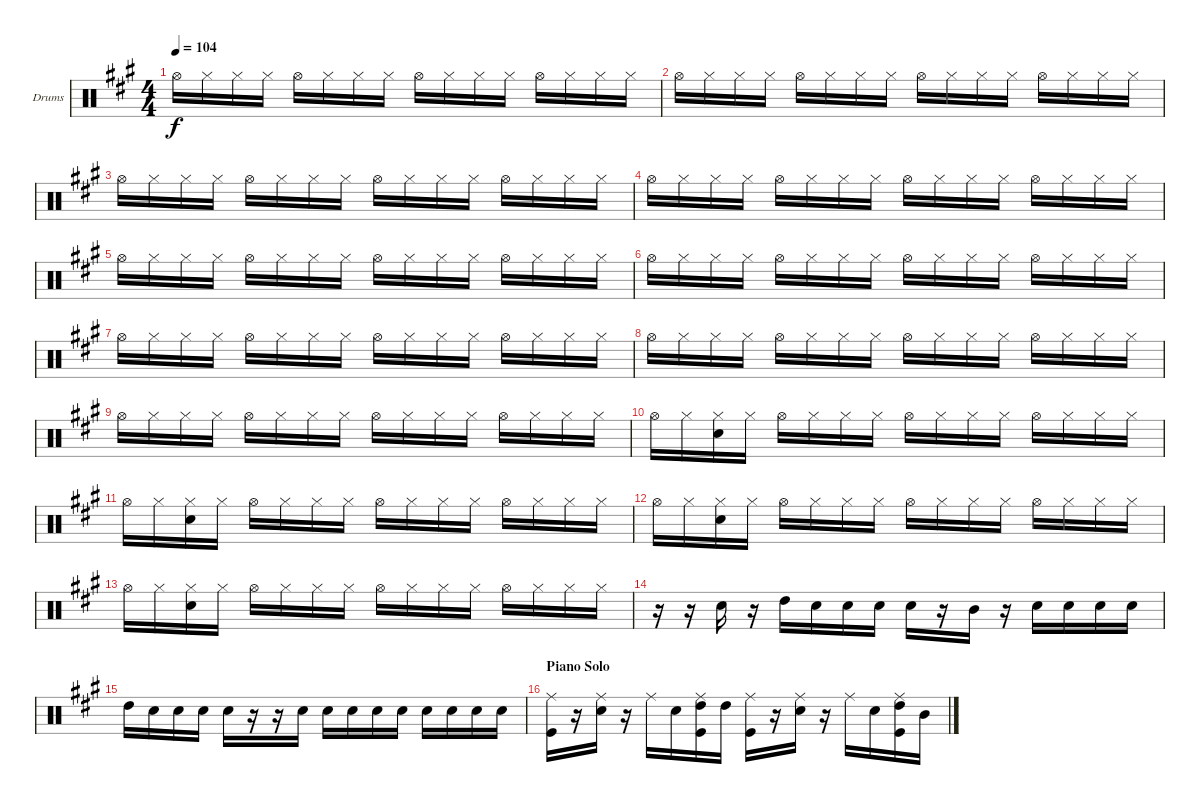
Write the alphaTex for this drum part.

\bracketExtendMode groupsimilarinstruments
\firstSystemTrackNameOrientation horizontal
\otherSystemsTrackNameOrientation horizontal
\track ("Drumkit" "Drums") {instrument percussion}
\staff {score}
\articulation defaults
\ts (4 4)
\tempo 104
\clef neutral
\ks a "Hi-Hat (open)".16{dy f} "Hi-Hat (closed)".16 "Hi-Hat (closed)".16 "Hi-Hat (closed)".16 "Hi-Hat (open)".16 "Hi-Hat (closed)".16 "Hi-Hat (closed)".16 "Hi-Hat (closed)".16 "Hi-Hat (open)".16 "Hi-Hat (closed)".16 "Hi-Hat (closed)".16 "Hi-Hat (closed)".16 "Hi-Hat (open)".16 "Hi-Hat (closed)".16 "Hi-Hat (closed)".16 "Hi-Hat (closed)".16
|
"Hi-Hat (open)".16 "Hi-Hat (closed)".16 "Hi-Hat (closed)".16 "Hi-Hat (closed)".16 "Hi-Hat (open)".16 "Hi-Hat (closed)".16 "Hi-Hat (closed)".16 "Hi-Hat (closed)".16 "Hi-Hat (open)".16 "Hi-Hat (closed)".16 "Hi-Hat (closed)".16 "Hi-Hat (closed)".16 "Hi-Hat (open)".16 "Hi-Hat (closed)".16 "Hi-Hat (closed)".16 "Hi-Hat (closed)".16 |
"Hi-Hat (open)".16 "Hi-Hat (closed)".16 "Hi-Hat (closed)".16 "Hi-Hat (closed)".16 "Hi-Hat (open)".16 "Hi-Hat (closed)".16 "Hi-Hat (closed)".16 "Hi-Hat (closed)".16 "Hi-Hat (open)".16 "Hi-Hat (closed)".16 "Hi-Hat (closed)".16 "Hi-Hat (closed)".16 "Hi-Hat (open)".16 "Hi-Hat (closed)".16 "Hi-Hat (closed)".16 "Hi-Hat (closed)".16 |
"Hi-Hat (open)".16 "Hi-Hat (closed)".16 "Hi-Hat (closed)".16 "Hi-Hat (closed)".16 "Hi-Hat (open)".16 "Hi-Hat (closed)".16 "Hi-Hat (closed)".16 "Hi-Hat (closed)".16 "Hi-Hat (open)".16 "Hi-Hat (closed)".16 "Hi-Hat (closed)".16 "Hi-Hat (closed)".16 "Hi-Hat (open)".16 "Hi-Hat (closed)".16 "Hi-Hat (closed)".16 "Hi-Hat (closed)".16 |
"Hi-Hat (open)".16 "Hi-Hat (closed)".16 "Hi-Hat (closed)".16 "Hi-Hat (closed)".16 "Hi-Hat (open)".16 "Hi-Hat (closed)".16 "Hi-Hat (closed)".16 "Hi-Hat (closed)".16 "Hi-Hat (open)".16 "Hi-Hat (closed)".16 "Hi-Hat (closed)".16 "Hi-Hat (closed)".16 "Hi-Hat (open)".16 "Hi-Hat (closed)".16 "Hi-Hat (closed)".16 "Hi-Hat (closed)".16 |
"Hi-Hat (open)".16 "Hi-Hat (closed)".16 "Hi-Hat (closed)".16 "Hi-Hat (closed)".16 "Hi-Hat (open)".16 "Hi-Hat (closed)".16 "Hi-Hat (closed)".16 "Hi-Hat (closed)".16 "Hi-Hat (open)".16 "Hi-Hat (closed)".16 "Hi-Hat (closed)".16 "Hi-Hat (closed)".16 "Hi-Hat (open)".16 "Hi-Hat (closed)".16 "Hi-Hat (closed)".16 "Hi-Hat (closed)".16 |
"Hi-Hat (open)".16 "Hi-Hat (closed)".16 "Hi-Hat (closed)".16 "Hi-Hat (closed)".16 "Hi-Hat (open)".16 "Hi-Hat (closed)".16 "Hi-Hat (closed)".16 "Hi-Hat (closed)".16 "Hi-Hat (open)".16 "Hi-Hat (closed)".16 "Hi-Hat (closed)".16 "Hi-Hat (closed)".16 "Hi-Hat (open)".16 "Hi-Hat (closed)".16 "Hi-Hat (closed)".16 "Hi-Hat (closed)".16 |
"Hi-Hat (open)".16 "Hi-Hat (closed)".16 "Hi-Hat (closed)".16 "Hi-Hat (closed)".16 "Hi-Hat (open)".16 "Hi-Hat (closed)".16 "Hi-Hat (closed)".16 "Hi-Hat (closed)".16 "Hi-Hat (open)".16 "Hi-Hat (closed)".16 "Hi-Hat (closed)".16 "Hi-Hat (closed)".16 "Hi-Hat (open)".16 "Hi-Hat (closed)".16 "Hi-Hat (closed)".16 "Hi-Hat (closed)".16 |
"Hi-Hat (open)".16 "Hi-Hat (closed)".16 "Hi-Hat (closed)".16 "Hi-Hat (closed)".16 "Hi-Hat (open)".16 "Hi-Hat (closed)".16 "Hi-Hat (closed)".16 "Hi-Hat (closed)".16 "Hi-Hat (open)".16 "Hi-Hat (closed)".16 "Hi-Hat (closed)".16 "Hi-Hat (closed)".16 "Hi-Hat (open)".16 "Hi-Hat (closed)".16 "Hi-Hat (closed)".16 "Hi-Hat (closed)".16 |
"Hi-Hat (open)".16 "Hi-Hat (closed)".16 ("Hi-Hat (closed)" "Snare (hit) 2").16 "Hi-Hat (closed)".16 "Hi-Hat (open)".16 "Hi-Hat (closed)".16 "Hi-Hat (closed)".16 "Hi-Hat (closed)".16 "Hi-Hat (open)".16 "Hi-Hat (closed)".16 "Hi-Hat (closed)".16 "Hi-Hat (closed)".16 "Hi-Hat (open)".16 "Hi-Hat (closed)".16 "Hi-Hat (closed)".16 "Hi-Hat (closed)".16 |
"Hi-Hat (open)".16 "Hi-Hat (closed)".16 ("Hi-Hat (closed)" "Snare (hit) 2").16 "Hi-Hat (closed)".16 "Hi-Hat (open)".16 "Hi-Hat (closed)".16 "Hi-Hat (closed)".16 "Hi-Hat (closed)".16 "Hi-Hat (open)".16 "Hi-Hat (closed)".16 "Hi-Hat (closed)".16 "Hi-Hat (closed)".16 "Hi-Hat (open)".16 "Hi-Hat (closed)".16 "Hi-Hat (closed)".16 "Hi-Hat (closed)".16 |
"Hi-Hat (open)".16 "Hi-Hat (closed)".16 ("Hi-Hat (closed)" "Snare (hit) 2").16 "Hi-Hat (closed)".16 "Hi-Hat (open)".16 "Hi-Hat (closed)".16 "Hi-Hat (closed)".16 "Hi-Hat (closed)".16 "Hi-Hat (open)".16 "Hi-Hat (closed)".16 "Hi-Hat (closed)".16 "Hi-Hat (closed)".16 "Hi-Hat (open)".16 "Hi-Hat (closed)".16 "Hi-Hat (closed)".16 "Hi-Hat (closed)".16 |
"Hi-Hat (open)".16 "Hi-Hat (closed)".16 ("Hi-Hat (closed)" "Snare (hit) 2").16 "Hi-Hat (closed)".16 "Hi-Hat (open)".16 "Hi-Hat (closed)".16 "Hi-Hat (closed)".16 "Hi-Hat (closed)".16 "Hi-Hat (open)".16 "Hi-Hat (closed)".16 "Hi-Hat (closed)".16 "Hi-Hat (closed)".16 "Hi-Hat (open)".16 "Hi-Hat (closed)".16 "Hi-Hat (closed)".16 "Hi-Hat (closed)".16 |
r.16 r.16 "Snare (hit) 2".16 r.16 "High Tom (hit)".16 "Snare (hit) 2".16 "Snare (hit) 2".16 "Snare (hit) 2".16 "Snare (hit) 2".16 r.16 "Mid Tom (hit)".16 r.16 "Snare (hit) 2".16 "Snare (hit) 2".16 "Snare (hit) 2".16 "Snare (hit) 2".16 |
"High Tom (hit)".16 "Snare (hit) 2".16 "Snare (hit) 2".16 "Snare (hit) 2".16 "Snare (hit) 2".16 r.16 r.16 "Snare (hit) 2".16 "Snare (hit) 2".16 "Snare (hit) 2".16 "Snare (hit) 2".16 "Snare (hit) 2".16 "Snare (hit) 2".16 "Snare (hit) 2".16 "Snare (hit) 2".16 "Snare (hit) 2".16 |
\section ("" "Piano Solo")
("Ride (middle)" "Kick (hit)").16 r.16 ("Ride (middle)" "Snare (hit) 2").16 r.16 "Ride (middle)".16 "Snare (hit) 2".16 ("Ride (middle)" "High Tom (hit)" "Kick (hit)").16 "High Tom (hit)".16 ("Ride (middle)" "Kick (hit)").16 r.16 ("Ride (middle)" "Snare (hit) 2").16 r.16 "Ride (middle)".16 "Snare (hit) 2".16 ("Ride (middle)" "High Tom (hit)" "Kick (hit)").16 "Mid Tom (hit)".16
